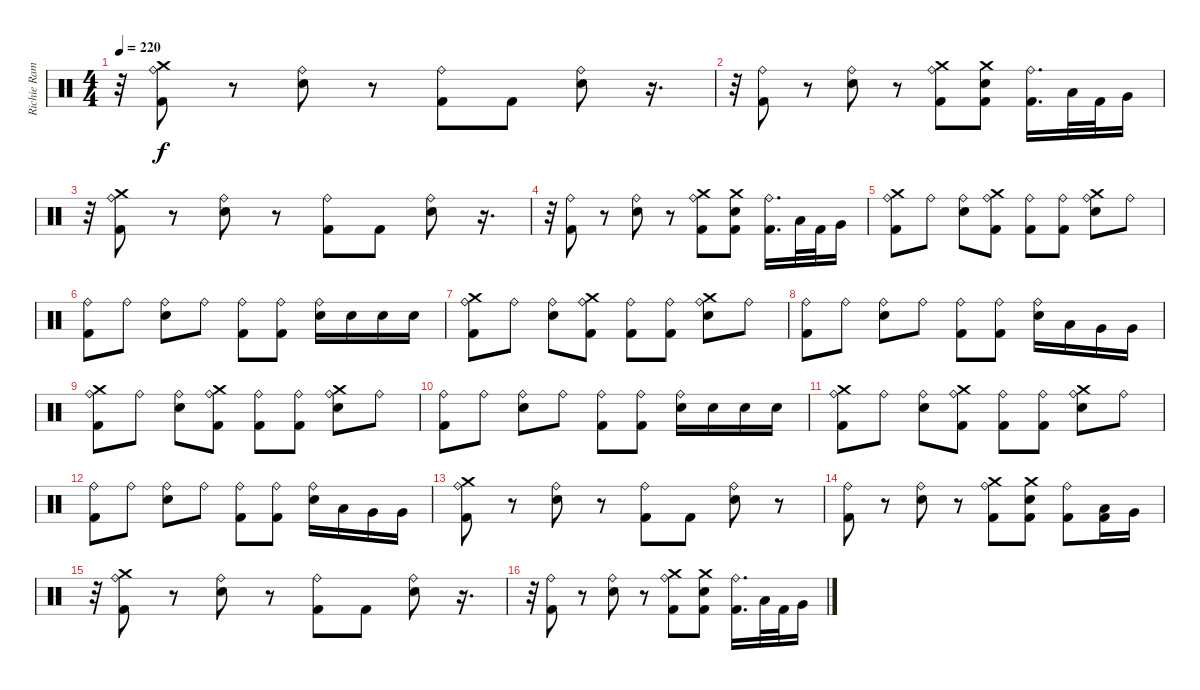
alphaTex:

\track ("Richie Ramone" "Richie Ram") {instrument percussion}
\staff {score}
\articulation defaults
\ts (4 4)
\tempo 220
\clef neutral
\ks c
r.32{dy f} ("Crash medium (hit)" "Ride (bell)" "Kick (hit) 2").8 r.8 ("Ride (bell)" "Electric Snare (hit)").8 r.8 ("Ride (bell)" "Kick (hit) 2").8 "Kick (hit) 2".8 ("Ride (bell)" "Electric Snare (hit)").8 r.16{d} |
r.32 ("Ride (bell)" "Kick (hit) 2").8 r.8 ("Ride (bell)" "Electric Snare (hit)").8 r.8 ("Crash medium (hit)" "Ride (bell)" "Kick (hit) 2").8 ("Electric Snare (hit)" "Crash medium (hit)" "Kick (hit) 2").8 ("Kick (hit) 2" "Ride (bell)").16{d} "Low Tom (hit)".32 "Kick (hit) 2".32 "Very Low Tom (hit)".16 |
r.32 ("Crash medium (hit)" "Ride (bell)" "Kick (hit) 2").8 r.8 ("Ride (bell)" "Electric Snare (hit)").8 r.8 ("Ride (bell)" "Kick (hit) 2").8 "Kick (hit) 2".8 ("Ride (bell)" "Electric Snare (hit)").8 r.16{d} |
r.32 ("Ride (bell)" "Kick (hit) 2").8 r.8 ("Ride (bell)" "Electric Snare (hit)").8 r.8 ("Crash medium (hit)" "Ride (bell)" "Kick (hit) 2").8 ("Electric Snare (hit)" "Crash medium (hit)" "Kick (hit) 2").8 ("Kick (hit) 2" "Ride (bell)").16{d} "Low Tom (hit)".32 "Kick (hit) 2".32 "Very Low Tom (hit)".16 |
("Crash medium (hit)" "Kick (hit) 2" "Ride (bell)").8 "Ride (bell)".8 ("Electric Snare (hit)" "Ride (bell)").8 ("Kick (hit) 2" "Crash medium (hit)" "Ride (bell)").8 ("Kick (hit) 2" "Ride (bell)").8 ("Kick (hit) 2" "Ride (bell)").8 ("Crash medium (hit)" "Electric Snare (hit)" "Ride (bell)").8 "Ride (bell)".8 |
("Kick (hit) 2" "Ride (bell)").8 "Ride (bell)".8 ("Electric Snare (hit)" "Ride (bell)").8 "Ride (bell)".8 ("Kick (hit) 2" "Ride (bell)").8 ("Kick (hit) 2" "Ride (bell)").8 ("Electric Snare (hit)" "Ride (bell)").16 "Electric Snare (hit)".16 "Electric Snare (hit)".16 "Electric Snare (hit)".16 |
("Crash medium (hit)" "Kick (hit) 2" "Ride (bell)").8 "Ride (bell)".8 ("Electric Snare (hit)" "Ride (bell)").8 ("Kick (hit) 2" "Crash medium (hit)" "Ride (bell)").8 ("Kick (hit) 2" "Ride (bell)").8 ("Kick (hit) 2" "Ride (bell)").8 ("Crash medium (hit)" "Electric Snare (hit)" "Ride (bell)").8 "Ride (bell)".8 |
("Kick (hit) 2" "Ride (bell)").8 "Ride (bell)".8 ("Electric Snare (hit)" "Ride (bell)").8 "Ride (bell)".8 ("Kick (hit) 2" "Ride (bell)").8 ("Kick (hit) 2" "Ride (bell)").8 ("Electric Snare (hit)" "Ride (bell)").16 "Low Tom (hit)".16 "Very Low Tom (hit)".16 "Very Low Tom (hit)".16 |
("Crash medium (hit)" "Kick (hit) 2" "Ride (bell)").8 "Ride (bell)".8 ("Electric Snare (hit)" "Ride (bell)").8 ("Kick (hit) 2" "Crash medium (hit)" "Ride (bell)").8 ("Kick (hit) 2" "Ride (bell)").8 ("Kick (hit) 2" "Ride (bell)").8 ("Crash medium (hit)" "Electric Snare (hit)" "Ride (bell)").8 "Ride (bell)".8 |
("Kick (hit) 2" "Ride (bell)").8 "Ride (bell)".8 ("Electric Snare (hit)" "Ride (bell)").8 "Ride (bell)".8 ("Kick (hit) 2" "Ride (bell)").8 ("Kick (hit) 2" "Ride (bell)").8 ("Electric Snare (hit)" "Ride (bell)").16 "Electric Snare (hit)".16 "Electric Snare (hit)".16 "Electric Snare (hit)".16 |
("Crash medium (hit)" "Kick (hit) 2" "Ride (bell)").8 "Ride (bell)".8 ("Electric Snare (hit)" "Ride (bell)").8 ("Kick (hit) 2" "Crash medium (hit)" "Ride (bell)").8 ("Kick (hit) 2" "Ride (bell)").8 ("Kick (hit) 2" "Ride (bell)").8 ("Crash medium (hit)" "Electric Snare (hit)" "Ride (bell)").8 "Ride (bell)".8 |
("Kick (hit) 2" "Ride (bell)").8 "Ride (bell)".8 ("Electric Snare (hit)" "Ride (bell)").8 "Ride (bell)".8 ("Kick (hit) 2" "Ride (bell)").8 ("Kick (hit) 2" "Ride (bell)").8 ("Electric Snare (hit)" "Ride (bell)").16 "Low Tom (hit)".16 "Very Low Tom (hit)".16 "Very Low Tom (hit)".16 |
("Crash medium (hit)" "Ride (bell)" "Kick (hit) 2").8 r.8 ("Ride (bell)" "Electric Snare (hit)").8 r.8 ("Ride (bell)" "Kick (hit) 2").8 "Kick (hit) 2".8 ("Ride (bell)" "Electric Snare (hit)").8 r.8 |
("Ride (bell)" "Kick (hit) 2").8 r.8 ("Ride (bell)" "Electric Snare (hit)").8 r.8 ("Crash medium (hit)" "Ride (bell)" "Kick (hit) 2").8 ("Electric Snare (hit)" "Crash medium (hit)" "Kick (hit) 2").8 ("Kick (hit) 2" "Ride (bell)").8 ("Low Tom (hit)" "Kick (hit) 2").16 "Very Low Tom (hit)".16 |
r.32 ("Crash medium (hit)" "Ride (bell)" "Kick (hit) 2").8 r.8 ("Ride (bell)" "Electric Snare (hit)").8 r.8 ("Ride (bell)" "Kick (hit) 2").8 "Kick (hit) 2".8 ("Ride (bell)" "Electric Snare (hit)").8 r.16{d} |
r.32 ("Ride (bell)" "Kick (hit) 2").8 r.8 ("Ride (bell)" "Electric Snare (hit)").8 r.8 ("Crash medium (hit)" "Ride (bell)" "Kick (hit) 2").8 ("Electric Snare (hit)" "Crash medium (hit)" "Kick (hit) 2").8 ("Kick (hit) 2" "Ride (bell)").16{d} "Low Tom (hit)".32 "Kick (hit) 2".32 "Very Low Tom (hit)".16
